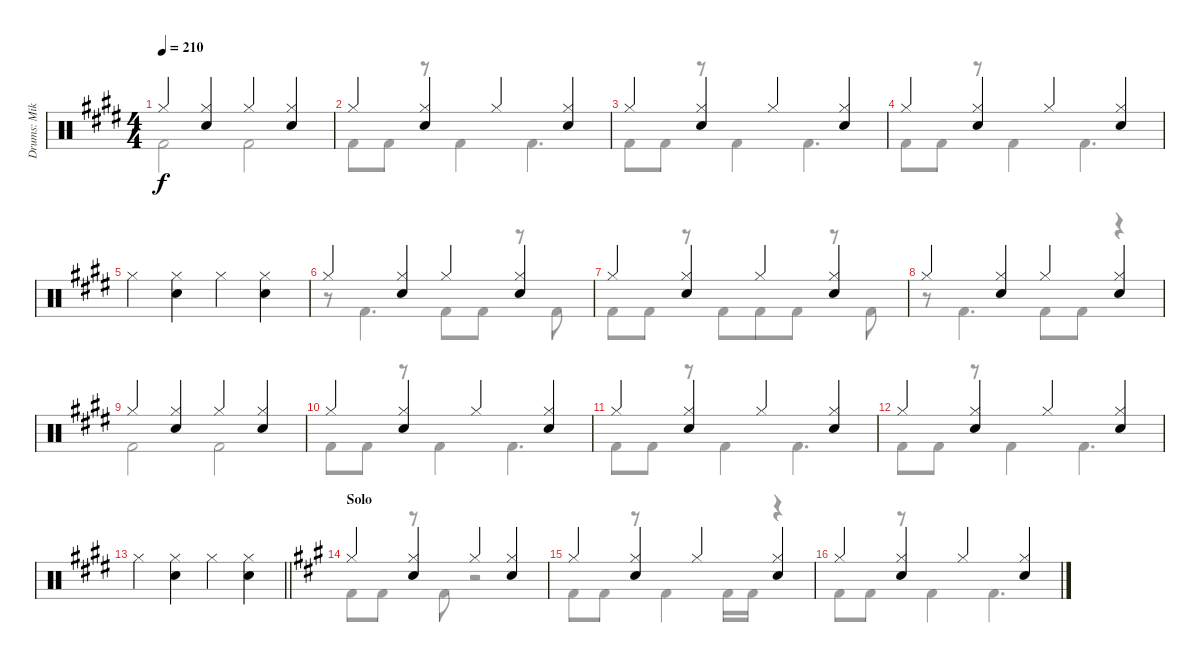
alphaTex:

\track ("Drums: Mikkey" "Drums: Mik") {instrument percussion}
\staff {score}
\articulation defaults
\voice
\ts (4 4)
\tempo 210
\clef neutral
\ks e "Hi-Hat (closed)".4{dy f}
("Hi-Hat (closed)" "Snare (hit) 2").4 "Hi-Hat (closed)".4 ("Hi-Hat (closed)" "Snare (hit) 2").4 |
"Hi-Hat (closed)".4 ("Hi-Hat (closed)" "Snare (hit) 2").4 "Hi-Hat (closed)".4 ("Hi-Hat (closed)" "Snare (hit) 2").4 |
"Hi-Hat (closed)".4 ("Hi-Hat (closed)" "Snare (hit) 2").4 "Hi-Hat (closed)".4 ("Hi-Hat (closed)" "Snare (hit) 2").4 |
"Hi-Hat (closed)".4 ("Hi-Hat (closed)" "Snare (hit) 2").4 "Hi-Hat (closed)".4 ("Hi-Hat (closed)" "Snare (hit) 2").4 |
"Hi-Hat (closed)".4 ("Hi-Hat (closed)" "Snare (hit) 2").4 "Hi-Hat (closed)".4 ("Hi-Hat (closed)" "Snare (hit) 2").4 |
"Hi-Hat (closed)".4 ("Hi-Hat (closed)" "Snare (hit) 2").4 "Hi-Hat (closed)".4 ("Hi-Hat (closed)" "Snare (hit) 2").4 |
"Hi-Hat (closed)".4 ("Hi-Hat (closed)" "Snare (hit) 2").4 "Hi-Hat (closed)".4 ("Hi-Hat (closed)" "Snare (hit) 2").4 |
"Hi-Hat (closed)".4 ("Hi-Hat (closed)" "Snare (hit) 2").4 "Hi-Hat (closed)".4 ("Hi-Hat (closed)" "Snare (hit) 2").4 |
"Hi-Hat (closed)".4 ("Hi-Hat (closed)" "Snare (hit) 2").4 "Hi-Hat (closed)".4 ("Hi-Hat (closed)" "Snare (hit) 2").4 |
"Hi-Hat (closed)".4 ("Hi-Hat (closed)" "Snare (hit) 2").4 "Hi-Hat (closed)".4 ("Hi-Hat (closed)" "Snare (hit) 2").4 |
"Hi-Hat (closed)".4 ("Hi-Hat (closed)" "Snare (hit) 2").4 "Hi-Hat (closed)".4 ("Hi-Hat (closed)" "Snare (hit) 2").4 |
"Hi-Hat (closed)".4 ("Hi-Hat (closed)" "Snare (hit) 2").4 "Hi-Hat (closed)".4 ("Hi-Hat (closed)" "Snare (hit) 2").4 |
\barLineRight lightlight "Hi-Hat (closed)".4
("Hi-Hat (closed)" "Snare (hit) 2").4 "Hi-Hat (closed)".4 ("Hi-Hat (closed)" "Snare (hit) 2").4 |
\section ("" "Solo")
\ks a "Hi-Hat (closed)".4
("Hi-Hat (closed)" "Snare (hit) 2").4 "Hi-Hat (closed)".4 ("Hi-Hat (closed)" "Snare (hit) 2").4 |
"Hi-Hat (closed)".4 ("Hi-Hat (closed)" "Snare (hit) 2").4 "Hi-Hat (closed)".4 ("Hi-Hat (closed)" "Snare (hit) 2").4 |
"Hi-Hat (closed)".4 ("Hi-Hat (closed)" "Snare (hit) 2").4 "Hi-Hat (closed)".4 ("Hi-Hat (closed)" "Snare (hit) 2").4
\voice
\clef neutral
\ottava regular
\simile none
\ks e "Kick (hit) 2".2{dy f} "Kick (hit) 2".2
|
"Kick (hit) 2".8 "Kick (hit) 2".8 r.8 "Kick (hit) 2".4{beam merge} "Kick (hit) 2".4{d} |
"Kick (hit) 2".8 "Kick (hit) 2".8 r.8 "Kick (hit) 2".4{beam merge} "Kick (hit) 2".4{d} |
"Kick (hit) 2".8 "Kick (hit) 2".8 r.8 "Kick (hit) 2".4{beam merge} "Kick (hit) 2".4{d} |
|
r.8 "Kick (hit) 2".4{d} "Kick (hit) 2".8 "Kick (hit) 2".8 r.8 "Kick (hit) 2".8 |
"Kick (hit) 2".8 "Kick (hit) 2".8 r.8 "Kick (hit) 2".8{beam merge} "Kick (hit) 2".8 "Kick (hit) 2".8 r.8 "Kick (hit) 2".8 |
r.8 "Kick (hit) 2".4{d beam merge} "Kick (hit) 2".8 "Kick (hit) 2".8 r.4 |
"Kick (hit) 2".2 "Kick (hit) 2".2 |
"Kick (hit) 2".8 "Kick (hit) 2".8 r.8 "Kick (hit) 2".4{beam merge} "Kick (hit) 2".4{d} |
"Kick (hit) 2".8 "Kick (hit) 2".8 r.8 "Kick (hit) 2".4{beam merge} "Kick (hit) 2".4{d} |
"Kick (hit) 2".8 "Kick (hit) 2".8 r.8 "Kick (hit) 2".4{beam merge} "Kick (hit) 2".4{d} |
\barLineRight lightlight
|
\ks a "Kick (hit) 2".8 "Kick (hit) 2".8
r.8 "Kick (hit) 2".8{beam merge} r.2 |
"Kick (hit) 2".8 "Kick (hit) 2".8 r.8 "Kick (hit) 2".4 "Kick (hit) 2".16 "Kick (hit) 2".16 r.4 |
"Kick (hit) 2".8 "Kick (hit) 2".8 r.8 "Kick (hit) 2".4 "Kick (hit) 2".4{d}
